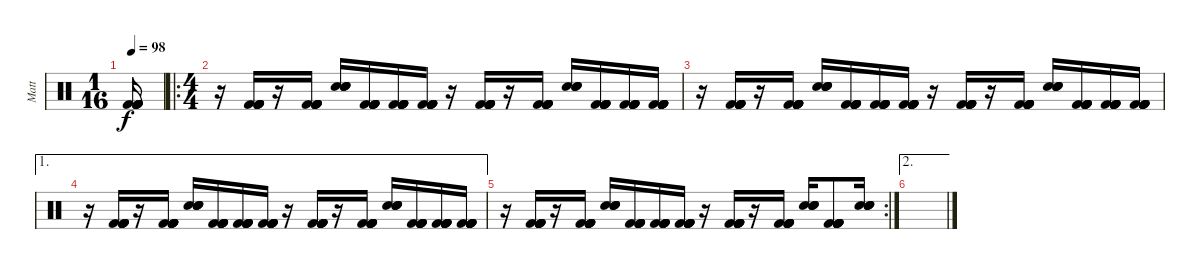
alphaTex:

\track ("Matt" "Matt") {instrument percussion}
\staff {score}
\articulation defaults
\ts (1 16)
\tempo 98
\clef neutral
\ks c
("Kick (hit) 2" "Kick (hit) 2" "Kick (hit) 2" "Kick (hit) 2" "Kick (hit) 2" "Kick (hit) 2").16{dy f} |
\ro
\ts (4 4)
r.16 ("Kick (hit) 2" "Kick (hit) 2" "Kick (hit) 2" "Kick (hit) 2" "Kick (hit) 2" "Kick (hit) 2").16 r.16 ("Kick (hit) 2" "Kick (hit) 2" "Kick (hit) 2" "Kick (hit) 2" "Kick (hit) 2" "Kick (hit) 2").16 ("Snare (hit) 2" "Snare (hit) 2" "Snare (hit) 2" "Snare (hit) 2").16 ("Kick (hit) 2" "Kick (hit) 2" "Kick (hit) 2" "Kick (hit) 2" "Kick (hit) 2" "Kick (hit) 2").16 ("Kick (hit) 2" "Kick (hit) 2" "Kick (hit) 2" "Kick (hit) 2" "Kick (hit) 2" "Kick (hit) 2").16 ("Kick (hit) 2" "Kick (hit) 2" "Kick (hit) 2" "Kick (hit) 2" "Kick (hit) 2" "Kick (hit) 2").16 r.16 ("Kick (hit) 2" "Kick (hit) 2" "Kick (hit) 2" "Kick (hit) 2" "Kick (hit) 2" "Kick (hit) 2").16 r.16 ("Kick (hit) 2" "Kick (hit) 2" "Kick (hit) 2" "Kick (hit) 2" "Kick (hit) 2" "Kick (hit) 2").16 ("Snare (hit) 2" "Snare (hit) 2" "Snare (hit) 2" "Snare (hit) 2").16 ("Kick (hit) 2" "Kick (hit) 2" "Kick (hit) 2" "Kick (hit) 2" "Kick (hit) 2" "Kick (hit) 2").16 ("Kick (hit) 2" "Kick (hit) 2" "Kick (hit) 2" "Kick (hit) 2" "Kick (hit) 2" "Kick (hit) 2").16 ("Kick (hit) 2" "Kick (hit) 2" "Kick (hit) 2" "Kick (hit) 2" "Kick (hit) 2" "Kick (hit) 2").16 |
r.16 ("Kick (hit) 2" "Kick (hit) 2" "Kick (hit) 2" "Kick (hit) 2" "Kick (hit) 2" "Kick (hit) 2").16 r.16 ("Kick (hit) 2" "Kick (hit) 2" "Kick (hit) 2" "Kick (hit) 2" "Kick (hit) 2" "Kick (hit) 2").16 ("Snare (hit) 2" "Snare (hit) 2" "Snare (hit) 2" "Snare (hit) 2").16 ("Kick (hit) 2" "Kick (hit) 2" "Kick (hit) 2" "Kick (hit) 2" "Kick (hit) 2" "Kick (hit) 2").16 ("Kick (hit) 2" "Kick (hit) 2" "Kick (hit) 2" "Kick (hit) 2" "Kick (hit) 2" "Kick (hit) 2").16 ("Kick (hit) 2" "Kick (hit) 2" "Kick (hit) 2" "Kick (hit) 2" "Kick (hit) 2" "Kick (hit) 2").16 r.16 ("Kick (hit) 2" "Kick (hit) 2" "Kick (hit) 2" "Kick (hit) 2" "Kick (hit) 2" "Kick (hit) 2").16 r.16 ("Kick (hit) 2" "Kick (hit) 2" "Kick (hit) 2" "Kick (hit) 2" "Kick (hit) 2" "Kick (hit) 2").16 ("Snare (hit) 2" "Snare (hit) 2" "Snare (hit) 2" "Snare (hit) 2").16 ("Kick (hit) 2" "Kick (hit) 2" "Kick (hit) 2" "Kick (hit) 2" "Kick (hit) 2" "Kick (hit) 2").16 ("Kick (hit) 2" "Kick (hit) 2" "Kick (hit) 2" "Kick (hit) 2" "Kick (hit) 2" "Kick (hit) 2").16 ("Kick (hit) 2" "Kick (hit) 2" "Kick (hit) 2" "Kick (hit) 2" "Kick (hit) 2" "Kick (hit) 2").16 |
\ae 1
r.16 ("Kick (hit) 2" "Kick (hit) 2" "Kick (hit) 2" "Kick (hit) 2" "Kick (hit) 2" "Kick (hit) 2").16 r.16 ("Kick (hit) 2" "Kick (hit) 2" "Kick (hit) 2" "Kick (hit) 2" "Kick (hit) 2" "Kick (hit) 2").16 ("Snare (hit) 2" "Snare (hit) 2" "Snare (hit) 2" "Snare (hit) 2").16 ("Kick (hit) 2" "Kick (hit) 2" "Kick (hit) 2" "Kick (hit) 2" "Kick (hit) 2" "Kick (hit) 2").16 ("Kick (hit) 2" "Kick (hit) 2" "Kick (hit) 2" "Kick (hit) 2" "Kick (hit) 2" "Kick (hit) 2").16 ("Kick (hit) 2" "Kick (hit) 2" "Kick (hit) 2" "Kick (hit) 2" "Kick (hit) 2" "Kick (hit) 2").16 r.16 ("Kick (hit) 2" "Kick (hit) 2" "Kick (hit) 2" "Kick (hit) 2" "Kick (hit) 2" "Kick (hit) 2").16 r.16 ("Kick (hit) 2" "Kick (hit) 2" "Kick (hit) 2" "Kick (hit) 2" "Kick (hit) 2" "Kick (hit) 2").16 ("Snare (hit) 2" "Snare (hit) 2" "Snare (hit) 2" "Snare (hit) 2").16 ("Kick (hit) 2" "Kick (hit) 2" "Kick (hit) 2" "Kick (hit) 2" "Kick (hit) 2" "Kick (hit) 2").16 ("Kick (hit) 2" "Kick (hit) 2" "Kick (hit) 2" "Kick (hit) 2" "Kick (hit) 2" "Kick (hit) 2").16 ("Kick (hit) 2" "Kick (hit) 2" "Kick (hit) 2" "Kick (hit) 2" "Kick (hit) 2" "Kick (hit) 2").16 |
\rc 2
r.16 ("Kick (hit) 2" "Kick (hit) 2" "Kick (hit) 2" "Kick (hit) 2" "Kick (hit) 2" "Kick (hit) 2").16 r.16 ("Kick (hit) 2" "Kick (hit) 2" "Kick (hit) 2" "Kick (hit) 2" "Kick (hit) 2" "Kick (hit) 2").16 ("Snare (hit) 2" "Snare (hit) 2" "Snare (hit) 2" "Snare (hit) 2").16 ("Kick (hit) 2" "Kick (hit) 2" "Kick (hit) 2" "Kick (hit) 2" "Kick (hit) 2" "Kick (hit) 2").16 ("Kick (hit) 2" "Kick (hit) 2" "Kick (hit) 2" "Kick (hit) 2" "Kick (hit) 2" "Kick (hit) 2").16 ("Kick (hit) 2" "Kick (hit) 2" "Kick (hit) 2" "Kick (hit) 2" "Kick (hit) 2" "Kick (hit) 2").16 r.16 ("Kick (hit) 2" "Kick (hit) 2" "Kick (hit) 2" "Kick (hit) 2" "Kick (hit) 2" "Kick (hit) 2").16 r.16 ("Kick (hit) 2" "Kick (hit) 2" "Kick (hit) 2" "Kick (hit) 2" "Kick (hit) 2" "Kick (hit) 2").16 ("Snare (hit) 2" "Snare (hit) 2" "Snare (hit) 2" "Snare (hit) 2").16 ("Kick (hit) 2" "Kick (hit) 2" "Kick (hit) 2" "Kick (hit) 2" "Kick (hit) 2" "Kick (hit) 2").8 ("Snare (hit) 2" "Snare (hit) 2" "Snare (hit) 2" "Snare (hit) 2").16 |
\ae 2
